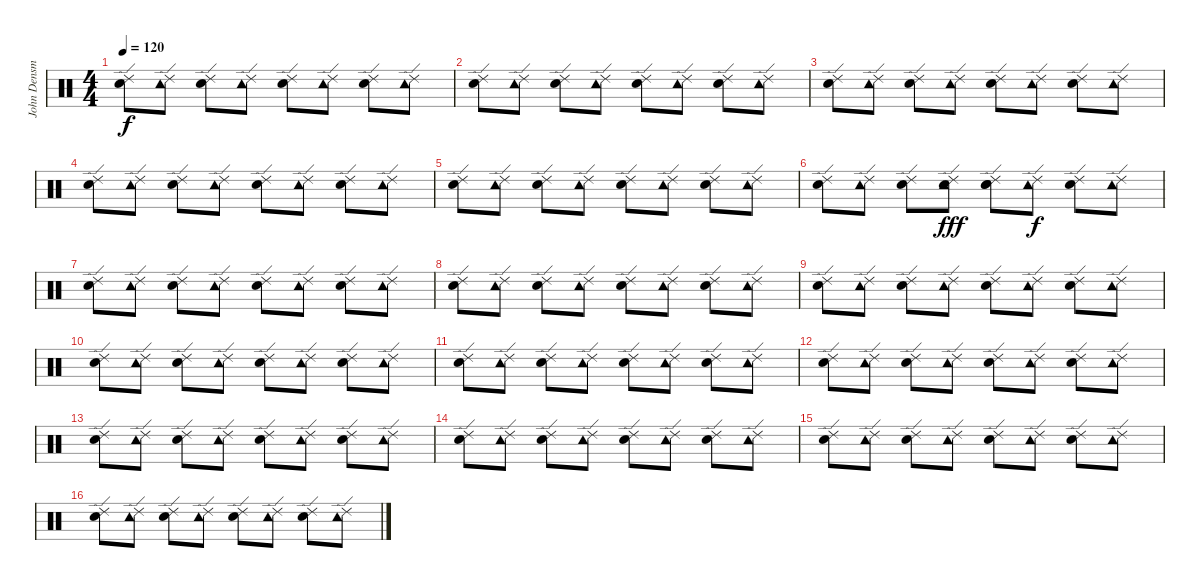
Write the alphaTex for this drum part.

\track ("John Densmore" "John Densm") {instrument percussion}
\staff {score}
\articulation defaults
\ts (4 4)
\tempo 120
\clef neutral
\ks c
("Ride (edge) 2" "Electric Snare (hit)").8{dy f} ("Ride (edge) 2" "Tambourine (hit)").8 ("Ride (edge) 2" "Snare (hit) 2").8 ("Ride (edge) 2" "Tambourine (hit)").8 ("Ride (edge) 2" "Electric Snare (hit)").8 ("Ride (edge) 2" "Tambourine (hit)").8 ("Ride (edge) 2" "Snare (hit) 2").8 ("Ride (edge) 2" "Tambourine (hit)").8 |
("Ride (edge) 2" "Electric Snare (hit)").8 ("Ride (edge) 2" "Tambourine (hit)").8 ("Ride (edge) 2" "Snare (hit) 2").8 ("Ride (edge) 2" "Tambourine (hit)").8 ("Ride (edge) 2" "Electric Snare (hit)").8 ("Ride (edge) 2" "Tambourine (hit)").8 ("Ride (edge) 2" "Snare (hit) 2").8 ("Ride (edge) 2" "Tambourine (hit)").8 |
("Ride (edge) 2" "Electric Snare (hit)").8 ("Ride (edge) 2" "Tambourine (hit)").8 ("Ride (edge) 2" "Snare (hit) 2").8 ("Ride (edge) 2" "Tambourine (hit)").8 ("Ride (edge) 2" "Electric Snare (hit)").8 ("Ride (edge) 2" "Tambourine (hit)").8 ("Ride (edge) 2" "Snare (hit) 2").8 ("Ride (edge) 2" "Tambourine (hit)").8 |
("Ride (edge) 2" "Electric Snare (hit)").8 ("Ride (edge) 2" "Tambourine (hit)").8 ("Ride (edge) 2" "Snare (hit) 2").8 ("Ride (edge) 2" "Tambourine (hit)").8 ("Ride (edge) 2" "Electric Snare (hit)").8 ("Ride (edge) 2" "Tambourine (hit)").8 ("Ride (edge) 2" "Snare (hit) 2").8 ("Ride (edge) 2" "Tambourine (hit)").8 |
("Ride (edge) 2" "Electric Snare (hit)").8 ("Ride (edge) 2" "Tambourine (hit)").8 ("Ride (edge) 2" "Snare (hit) 2").8 ("Ride (edge) 2" "Tambourine (hit)").8 ("Ride (edge) 2" "Electric Snare (hit)").8 ("Ride (edge) 2" "Tambourine (hit)").8 ("Ride (edge) 2" "Snare (hit) 2").8 ("Ride (edge) 2" "Tambourine (hit)").8 |
("Ride (edge) 2" "Electric Snare (hit)").8 ("Ride (edge) 2" "Tambourine (hit)").8 ("Ride (edge) 2" "Snare (hit) 2").8 ("Electric Snare (hit)" "Ride (edge) 2" "Tambourine (hit)").8{dy fff} ("Electric Snare (hit)" "Ride (edge) 2" "Electric Snare (hit)").8 ("Ride (edge) 2" "Tambourine (hit)").8{dy f} ("Ride (edge) 2" "Snare (hit) 2").8 ("Ride (edge) 2" "Tambourine (hit)").8 |
("Ride (edge) 2" "Electric Snare (hit)").8 ("Ride (edge) 2" "Tambourine (hit)").8 ("Ride (edge) 2" "Snare (hit) 2").8 ("Ride (edge) 2" "Tambourine (hit)").8 ("Ride (edge) 2" "Electric Snare (hit)").8 ("Ride (edge) 2" "Tambourine (hit)").8 ("Ride (edge) 2" "Snare (hit) 2").8 ("Ride (edge) 2" "Tambourine (hit)").8 |
("Ride (edge) 2" "Electric Snare (hit)").8 ("Ride (edge) 2" "Tambourine (hit)").8 ("Ride (edge) 2" "Snare (hit) 2").8 ("Ride (edge) 2" "Tambourine (hit)").8 ("Ride (edge) 2" "Electric Snare (hit)").8 ("Ride (edge) 2" "Tambourine (hit)").8 ("Ride (edge) 2" "Snare (hit) 2").8 ("Ride (edge) 2" "Tambourine (hit)").8 |
("Ride (edge) 2" "Electric Snare (hit)").8 ("Ride (edge) 2" "Tambourine (hit)").8 ("Ride (edge) 2" "Snare (hit) 2").8 ("Ride (edge) 2" "Tambourine (hit)").8 ("Ride (edge) 2" "Electric Snare (hit)").8 ("Ride (edge) 2" "Tambourine (hit)").8 ("Ride (edge) 2" "Snare (hit) 2").8 ("Ride (edge) 2" "Tambourine (hit)").8 |
("Ride (edge) 2" "Electric Snare (hit)").8 ("Ride (edge) 2" "Tambourine (hit)").8 ("Ride (edge) 2" "Snare (hit) 2").8 ("Ride (edge) 2" "Tambourine (hit)").8 ("Ride (edge) 2" "Electric Snare (hit)").8 ("Ride (edge) 2" "Tambourine (hit)").8 ("Ride (edge) 2" "Snare (hit) 2").8 ("Ride (edge) 2" "Tambourine (hit)").8 |
("Ride (edge) 2" "Electric Snare (hit)").8 ("Ride (edge) 2" "Tambourine (hit)").8 ("Ride (edge) 2" "Snare (hit) 2").8 ("Ride (edge) 2" "Tambourine (hit)").8 ("Ride (edge) 2" "Electric Snare (hit)").8 ("Ride (edge) 2" "Tambourine (hit)").8 ("Ride (edge) 2" "Snare (hit) 2").8 ("Ride (edge) 2" "Tambourine (hit)").8 |
("Ride (edge) 2" "Electric Snare (hit)").8 ("Ride (edge) 2" "Tambourine (hit)").8 ("Ride (edge) 2" "Snare (hit) 2").8 ("Ride (edge) 2" "Tambourine (hit)").8 ("Ride (edge) 2" "Electric Snare (hit)").8 ("Ride (edge) 2" "Tambourine (hit)").8 ("Ride (edge) 2" "Snare (hit) 2").8 ("Ride (edge) 2" "Tambourine (hit)").8 |
("Ride (edge) 2" "Electric Snare (hit)").8 ("Ride (edge) 2" "Tambourine (hit)").8 ("Ride (edge) 2" "Snare (hit) 2").8 ("Ride (edge) 2" "Tambourine (hit)").8 ("Ride (edge) 2" "Electric Snare (hit)").8 ("Ride (edge) 2" "Tambourine (hit)").8 ("Ride (edge) 2" "Snare (hit) 2").8 ("Ride (edge) 2" "Tambourine (hit)").8 |
("Ride (edge) 2" "Electric Snare (hit)").8 ("Ride (edge) 2" "Tambourine (hit)").8 ("Ride (edge) 2" "Snare (hit) 2").8 ("Ride (edge) 2" "Tambourine (hit)").8 ("Ride (edge) 2" "Electric Snare (hit)").8 ("Ride (edge) 2" "Tambourine (hit)").8 ("Ride (edge) 2" "Snare (hit) 2").8 ("Ride (edge) 2" "Tambourine (hit)").8 |
("Ride (edge) 2" "Electric Snare (hit)").8 ("Ride (edge) 2" "Tambourine (hit)").8 ("Ride (edge) 2" "Snare (hit) 2").8 ("Ride (edge) 2" "Tambourine (hit)").8 ("Ride (edge) 2" "Electric Snare (hit)").8 ("Ride (edge) 2" "Tambourine (hit)").8 ("Ride (edge) 2" "Snare (hit) 2").8 ("Ride (edge) 2" "Tambourine (hit)").8 |
("Ride (edge) 2" "Electric Snare (hit)").8 ("Ride (edge) 2" "Tambourine (hit)").8 ("Ride (edge) 2" "Snare (hit) 2").8 ("Ride (edge) 2" "Tambourine (hit)").8 ("Ride (edge) 2" "Electric Snare (hit)").8 ("Ride (edge) 2" "Tambourine (hit)").8 ("Ride (edge) 2" "Snare (hit) 2").8 ("Ride (edge) 2" "Tambourine (hit)").8
